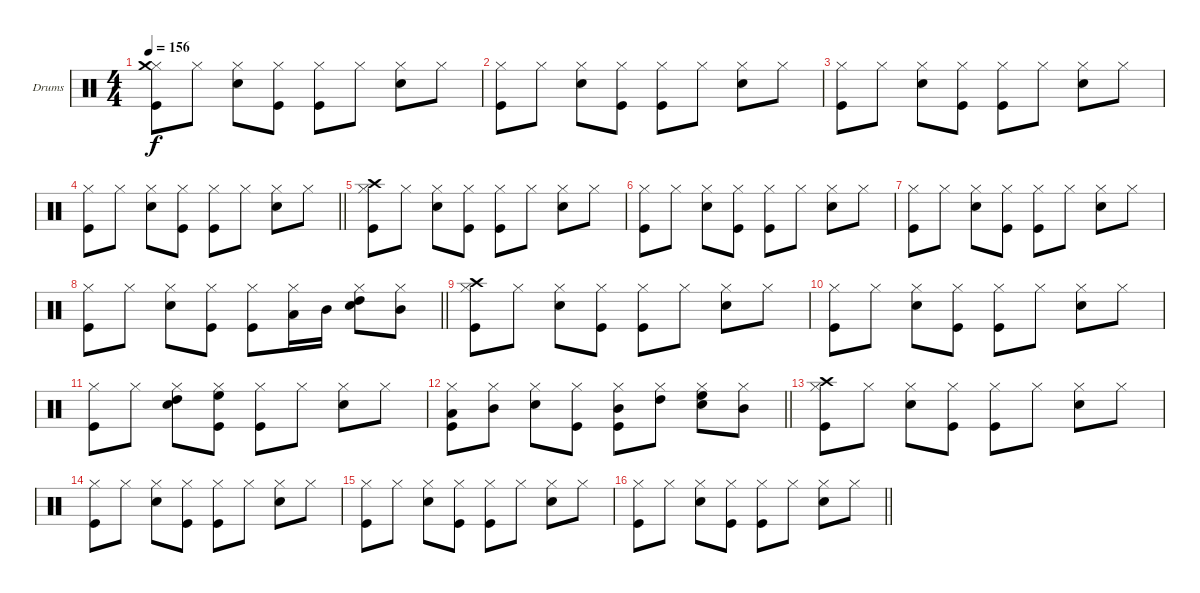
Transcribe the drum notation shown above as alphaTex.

\bracketExtendMode groupsimilarinstruments
\firstSystemTrackNameOrientation horizontal
\otherSystemsTrackNameOrientation horizontal
\track ("Drumkit" "Drums") {instrument percussion}
\staff {score}
\articulation defaults
\ts (4 4)
\tempo 156
\clef neutral
\ks c
("Hi-Hat (closed)" "Kick (hit)" "Crash medium (hit)").8{dy f} "Hi-Hat (closed)".8 ("Hi-Hat (closed)" "Snare (hit) 2").8 ("Hi-Hat (closed)" "Kick (hit)").8 ("Hi-Hat (closed)" "Kick (hit)").8 "Hi-Hat (closed)".8 ("Hi-Hat (closed)" "Snare (hit) 2").8 "Hi-Hat (closed)".8 |
("Hi-Hat (closed)" "Kick (hit)").8 "Hi-Hat (closed)".8 ("Hi-Hat (closed)" "Snare (hit) 2").8 ("Hi-Hat (closed)" "Kick (hit)").8 ("Hi-Hat (closed)" "Kick (hit)").8 "Hi-Hat (closed)".8 ("Hi-Hat (closed)" "Snare (hit) 2").8 "Hi-Hat (closed)".8 |
("Hi-Hat (closed)" "Kick (hit)").8 "Hi-Hat (closed)".8 ("Hi-Hat (closed)" "Snare (hit) 2").8 ("Hi-Hat (closed)" "Kick (hit)").8 ("Hi-Hat (closed)" "Kick (hit)").8 "Hi-Hat (closed)".8 ("Hi-Hat (closed)" "Snare (hit) 2").8 "Hi-Hat (closed)".8 |
\barLineRight lightlight
("Hi-Hat (closed)" "Kick (hit)").8 "Hi-Hat (closed)".8 ("Hi-Hat (closed)" "Snare (hit) 2").8 ("Hi-Hat (closed)" "Kick (hit)").8 ("Hi-Hat (closed)" "Kick (hit)").8 "Hi-Hat (closed)".8 ("Hi-Hat (closed)" "Snare (hit) 2").8 "Hi-Hat (closed)".8 |
("Hi-Hat (closed)" "Kick (hit)" "Crash high (hit)").8 "Hi-Hat (closed)".8 ("Hi-Hat (closed)" "Snare (hit) 2").8 ("Hi-Hat (closed)" "Kick (hit)").8 ("Hi-Hat (closed)" "Kick (hit)").8 "Hi-Hat (closed)".8 ("Hi-Hat (closed)" "Snare (hit) 2").8 "Hi-Hat (closed)".8 |
("Hi-Hat (closed)" "Kick (hit)").8 "Hi-Hat (closed)".8 ("Hi-Hat (closed)" "Snare (hit) 2").8 ("Hi-Hat (closed)" "Kick (hit)").8 ("Hi-Hat (closed)" "Kick (hit)").8 "Hi-Hat (closed)".8 ("Hi-Hat (closed)" "Snare (hit) 2").8 "Hi-Hat (closed)".8 |
("Hi-Hat (closed)" "Kick (hit)").8 "Hi-Hat (closed)".8 ("Hi-Hat (closed)" "Snare (hit) 2").8 ("Hi-Hat (closed)" "Kick (hit)").8 ("Hi-Hat (closed)" "Kick (hit)").8 "Hi-Hat (closed)".8 ("Hi-Hat (closed)" "Snare (hit) 2").8 "Hi-Hat (closed)".8 |
\barLineRight lightlight
("Hi-Hat (closed)" "Kick (hit)").8 "Hi-Hat (closed)".8 ("Hi-Hat (closed)" "Snare (hit) 2").8 ("Hi-Hat (closed)" "Kick (hit)").8 ("Hi-Hat (closed)" "Kick (hit)").8 ("Hi-Hat (closed)" "Low Tom (hit)").16 "Mid Tom (hit)".16 ("Hi-Hat (closed)" "Snare (hit) 2" "High Tom (hit)").8 ("Hi-Hat (closed)" "Mid Tom (hit)").8 |
("Hi-Hat (closed)" "Kick (hit)" "Crash high (hit)").8 "Hi-Hat (closed)".8 ("Hi-Hat (closed)" "Snare (hit) 2").8 ("Hi-Hat (closed)" "Kick (hit)").8 ("Hi-Hat (closed)" "Kick (hit)").8 "Hi-Hat (closed)".8 ("Hi-Hat (closed)" "Snare (hit) 2").8 "Hi-Hat (closed)".8 |
("Hi-Hat (closed)" "Kick (hit)").8 "Hi-Hat (closed)".8 ("Hi-Hat (closed)" "Snare (hit) 2").8 ("Hi-Hat (closed)" "Kick (hit)").8 ("Hi-Hat (closed)" "Kick (hit)").8 "Hi-Hat (closed)".8 ("Hi-Hat (closed)" "Snare (hit) 2").8 "Hi-Hat (closed)".8 |
("Hi-Hat (closed)" "Kick (hit)").8 "Hi-Hat (closed)".8 ("Hi-Hat (closed)" "Snare (hit) 2" "High Tom (hit)").8 ("Hi-Hat (closed)" "Kick (hit)" "High Floor Tom (hit)").8 ("Hi-Hat (closed)" "Kick (hit)").8 "Hi-Hat (closed)".8 ("Hi-Hat (closed)" "Snare (hit) 2").8 "Hi-Hat (closed)".8 |
\barLineRight lightlight
("Hi-Hat (closed)" "Kick (hit)" "Low Tom (hit)").8 ("Hi-Hat (closed)" "Mid Tom (hit)").8 ("Hi-Hat (closed)" "Snare (hit) 2").8 ("Hi-Hat (closed)" "Kick (hit)").8 ("Hi-Hat (closed)" "Kick (hit)" "Mid Tom (hit)").8 ("Hi-Hat (closed)" "High Tom (hit)").8 ("Hi-Hat (closed)" "Snare (hit) 2" "High Floor Tom (hit)").8 ("Hi-Hat (closed)" "Mid Tom (hit)").8 |
("Hi-Hat (closed)" "Kick (hit)" "Crash high (hit)").8 "Hi-Hat (closed)".8 ("Hi-Hat (closed)" "Snare (hit) 2").8 ("Hi-Hat (closed)" "Kick (hit)").8 ("Hi-Hat (closed)" "Kick (hit)").8 "Hi-Hat (closed)".8 ("Hi-Hat (closed)" "Snare (hit) 2").8 "Hi-Hat (closed)".8 |
("Hi-Hat (closed)" "Kick (hit)").8 "Hi-Hat (closed)".8 ("Hi-Hat (closed)" "Snare (hit) 2").8 ("Hi-Hat (closed)" "Kick (hit)").8 ("Hi-Hat (closed)" "Kick (hit)").8 "Hi-Hat (closed)".8 ("Hi-Hat (closed)" "Snare (hit) 2").8 "Hi-Hat (closed)".8 |
("Hi-Hat (closed)" "Kick (hit)").8 "Hi-Hat (closed)".8 ("Hi-Hat (closed)" "Snare (hit) 2").8 ("Hi-Hat (closed)" "Kick (hit)").8 ("Hi-Hat (closed)" "Kick (hit)").8 "Hi-Hat (closed)".8 ("Hi-Hat (closed)" "Snare (hit) 2").8 "Hi-Hat (closed)".8 |
\barLineRight lightlight
("Hi-Hat (closed)" "Kick (hit)").8 "Hi-Hat (closed)".8 ("Hi-Hat (closed)" "Snare (hit) 2").8 ("Hi-Hat (closed)" "Kick (hit)").8 ("Hi-Hat (closed)" "Kick (hit)").8 "Hi-Hat (closed)".8 ("Hi-Hat (closed)" "Snare (hit) 2").8 "Hi-Hat (closed)".8
